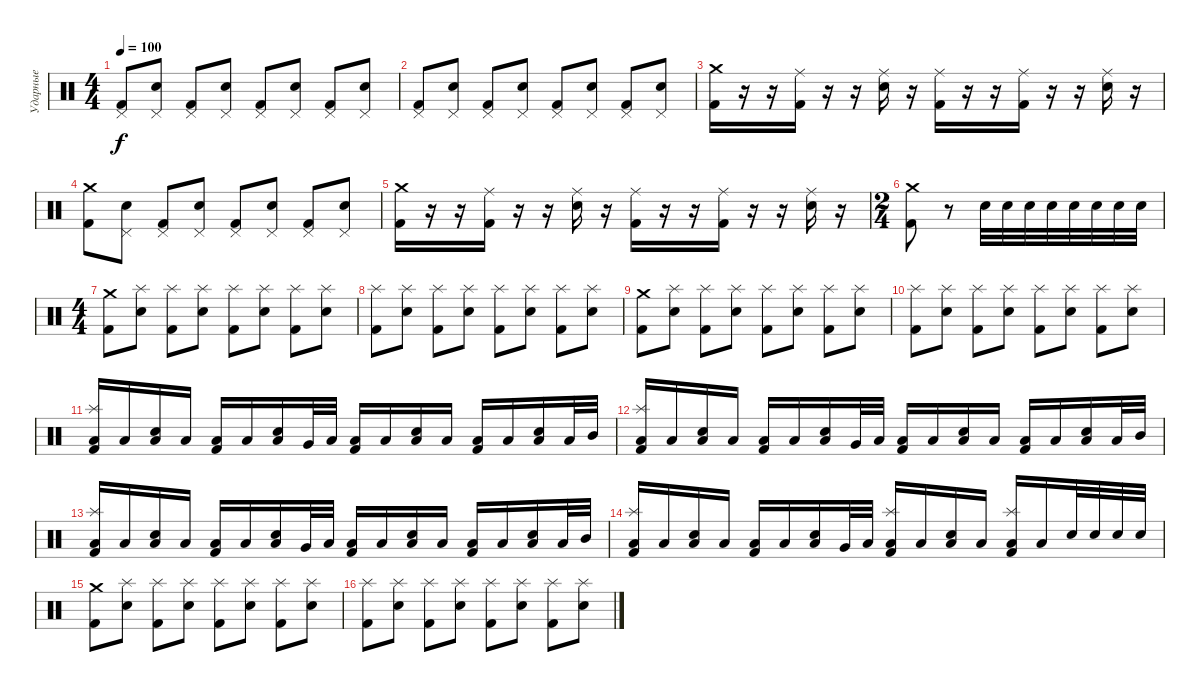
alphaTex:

\track ("Ударные" "Ударные") {instrument percussion}
\staff {score}
\articulation defaults
\ts (4 4)
\tempo 100
\clef neutral
\ks c
("Pedal Hi-Hat (hit)" "Kick (hit) 2").8{dy f} ("Pedal Hi-Hat (hit)" "Electric Snare (hit)").8 ("Pedal Hi-Hat (hit)" "Kick (hit) 2").8 ("Pedal Hi-Hat (hit)" "Electric Snare (hit)").8 ("Pedal Hi-Hat (hit)" "Kick (hit) 2").8 ("Pedal Hi-Hat (hit)" "Electric Snare (hit)").8 ("Pedal Hi-Hat (hit)" "Kick (hit) 2").8 ("Pedal Hi-Hat (hit)" "Electric Snare (hit)").8 |
("Pedal Hi-Hat (hit)" "Kick (hit) 2").8 ("Pedal Hi-Hat (hit)" "Electric Snare (hit)").8 ("Pedal Hi-Hat (hit)" "Kick (hit) 2").8 ("Pedal Hi-Hat (hit)" "Electric Snare (hit)").8 ("Pedal Hi-Hat (hit)" "Kick (hit) 2").8 ("Pedal Hi-Hat (hit)" "Electric Snare (hit)").8 ("Pedal Hi-Hat (hit)" "Kick (hit) 2").8 ("Pedal Hi-Hat (hit)" "Electric Snare (hit)").8 |
("Crash medium (hit)" "Kick (hit) 2").16 r.16 r.16 ("Ride (middle)" "Kick (hit) 2").16 r.16 r.16 ("Ride (middle)" "Electric Snare (hit)").16 r.16 ("Ride (middle)" "Kick (hit) 2").16 r.16 r.16 ("Ride (middle)" "Kick (hit) 2").16 r.16 r.16 ("Ride (middle)" "Electric Snare (hit)").16 r.16 |
("Crash medium (hit)" "Kick (hit) 2").8 ("Pedal Hi-Hat (hit)" "Electric Snare (hit)").8 ("Pedal Hi-Hat (hit)" "Kick (hit) 2").8 ("Pedal Hi-Hat (hit)" "Electric Snare (hit)").8 ("Pedal Hi-Hat (hit)" "Kick (hit) 2").8 ("Pedal Hi-Hat (hit)" "Electric Snare (hit)").8 ("Pedal Hi-Hat (hit)" "Kick (hit) 2").8 ("Pedal Hi-Hat (hit)" "Electric Snare (hit)").8 |
("Crash medium (hit)" "Kick (hit) 2").16 r.16 r.16 ("Ride (middle)" "Kick (hit) 2").16 r.16 r.16 ("Ride (middle)" "Electric Snare (hit)").16 r.16 ("Ride (middle)" "Kick (hit) 2").16 r.16 r.16 ("Ride (middle)" "Kick (hit) 2").16 r.16 r.16 ("Ride (middle)" "Electric Snare (hit)").16 r.16 |
\ts (2 4)
("Crash medium (hit)" "Kick (hit) 2").8 r.8 "Electric Snare (hit)".32 "Electric Snare (hit)".32 "Electric Snare (hit)".32 "Electric Snare (hit)".32 "Electric Snare (hit)".32 "Electric Snare (hit)".32 "Electric Snare (hit)".32 "Electric Snare (hit)".32 |
\ts (4 4)
("Crash medium (hit)" "Kick (hit) 2").8 ("Splash (hit)" "Electric Snare (hit)").8 ("Splash (hit)" "Kick (hit) 2").8 ("Splash (hit)" "Electric Snare (hit)").8 ("Splash (hit)" "Kick (hit) 2").8 ("Splash (hit)" "Electric Snare (hit)").8 ("Splash (hit)" "Kick (hit) 2").8 ("Splash (hit)" "Electric Snare (hit)").8 |
("Splash (hit)" "Kick (hit) 2").8 ("Splash (hit)" "Electric Snare (hit)").8 ("Splash (hit)" "Kick (hit) 2").8 ("Splash (hit)" "Electric Snare (hit)").8 ("Splash (hit)" "Kick (hit) 2").8 ("Splash (hit)" "Electric Snare (hit)").8 ("Splash (hit)" "Kick (hit) 2").8 ("Splash (hit)" "Electric Snare (hit)").8 |
("Crash medium (hit)" "Kick (hit) 2").8 ("Splash (hit)" "Electric Snare (hit)").8 ("Splash (hit)" "Kick (hit) 2").8 ("Splash (hit)" "Electric Snare (hit)").8 ("Splash (hit)" "Kick (hit) 2").8 ("Splash (hit)" "Electric Snare (hit)").8 ("Splash (hit)" "Kick (hit) 2").8 ("Splash (hit)" "Electric Snare (hit)").8 |
("Splash (hit)" "Kick (hit) 2").8 ("Splash (hit)" "Electric Snare (hit)").8 ("Splash (hit)" "Kick (hit) 2").8 ("Splash (hit)" "Electric Snare (hit)").8 ("Splash (hit)" "Kick (hit) 2").8 ("Splash (hit)" "Electric Snare (hit)").8 ("Splash (hit)" "Kick (hit) 2").8 ("Splash (hit)" "Electric Snare (hit)").8 |
("Splash (hit)" "Low Floor Tom (hit)" "Kick (hit) 2").16 "Low Floor Tom (hit)".16 ("Low Floor Tom (hit)" "Electric Snare (hit)").16 "Low Floor Tom (hit)".16 ("Low Floor Tom (hit)" "Kick (hit) 2").16 "Low Floor Tom (hit)".16 ("Low Floor Tom (hit)" "Electric Snare (hit)").16 "Very Low Tom (hit)".32 "Low Floor Tom (hit)".32 ("Low Floor Tom (hit)" "Kick (hit) 2").16 "Low Floor Tom (hit)".16 ("Low Floor Tom (hit)" "Electric Snare (hit)").16 "Low Floor Tom (hit)".16 ("Low Floor Tom (hit)" "Kick (hit) 2").16 "Low Floor Tom (hit)".16 ("Low Floor Tom (hit)" "Electric Snare (hit)").16 "Low Tom (hit)".32 "Mid Tom (hit)".32 |
("Splash (hit)" "Low Floor Tom (hit)" "Kick (hit) 2").16 "Low Floor Tom (hit)".16 ("Low Floor Tom (hit)" "Electric Snare (hit)").16 "Low Floor Tom (hit)".16 ("Low Floor Tom (hit)" "Kick (hit) 2").16 "Low Floor Tom (hit)".16 ("Low Floor Tom (hit)" "Electric Snare (hit)").16 "Very Low Tom (hit)".32 "Low Floor Tom (hit)".32 ("Low Floor Tom (hit)" "Kick (hit) 2").16 "Low Floor Tom (hit)".16 ("Low Floor Tom (hit)" "Electric Snare (hit)").16 "Low Floor Tom (hit)".16 ("Low Floor Tom (hit)" "Kick (hit) 2").16 "Low Floor Tom (hit)".16 ("Low Floor Tom (hit)" "Electric Snare (hit)").16 "Low Tom (hit)".32 "Mid Tom (hit)".32 |
("Splash (hit)" "Low Floor Tom (hit)" "Kick (hit) 2").16 "Low Floor Tom (hit)".16 ("Low Floor Tom (hit)" "Electric Snare (hit)").16 "Low Floor Tom (hit)".16 ("Low Floor Tom (hit)" "Kick (hit) 2").16 "Low Floor Tom (hit)".16 ("Low Floor Tom (hit)" "Electric Snare (hit)").16 "Very Low Tom (hit)".32 "Low Floor Tom (hit)".32 ("Low Floor Tom (hit)" "Kick (hit) 2").16 "Low Floor Tom (hit)".16 ("Low Floor Tom (hit)" "Electric Snare (hit)").16 "Low Floor Tom (hit)".16 ("Low Floor Tom (hit)" "Kick (hit) 2").16 "Low Floor Tom (hit)".16 ("Low Floor Tom (hit)" "Electric Snare (hit)").16 "Low Tom (hit)".32 "Mid Tom (hit)".32 |
("Splash (hit)" "Low Floor Tom (hit)" "Kick (hit) 2").16 "Low Floor Tom (hit)".16 ("Low Floor Tom (hit)" "Electric Snare (hit)").16 "Low Floor Tom (hit)".16 ("Low Floor Tom (hit)" "Kick (hit) 2").16 "Low Floor Tom (hit)".16 ("Low Floor Tom (hit)" "Electric Snare (hit)").16 "Very Low Tom (hit)".32 "Low Floor Tom (hit)".32 ("Splash (hit)" "Low Floor Tom (hit)" "Kick (hit) 2").16 "Low Floor Tom (hit)".16 ("Low Floor Tom (hit)" "Electric Snare (hit)").16 "Low Floor Tom (hit)".16 ("Splash (hit)" "Low Floor Tom (hit)" "Kick (hit) 2").16 "Low Floor Tom (hit)".16 "Electric Snare (hit)".32 "Electric Snare (hit)".32 "Electric Snare (hit)".32 "Electric Snare (hit)".32 |
("Crash medium (hit)" "Kick (hit) 2").8 ("Splash (hit)" "Electric Snare (hit)").8 ("Splash (hit)" "Kick (hit) 2").8 ("Splash (hit)" "Electric Snare (hit)").8 ("Splash (hit)" "Kick (hit) 2").8 ("Splash (hit)" "Electric Snare (hit)").8 ("Splash (hit)" "Kick (hit) 2").8 ("Splash (hit)" "Electric Snare (hit)").8 |
("Splash (hit)" "Kick (hit) 2").8 ("Splash (hit)" "Electric Snare (hit)").8 ("Splash (hit)" "Kick (hit) 2").8 ("Splash (hit)" "Electric Snare (hit)").8 ("Splash (hit)" "Kick (hit) 2").8 ("Splash (hit)" "Electric Snare (hit)").8 ("Splash (hit)" "Kick (hit) 2").8 ("Splash (hit)" "Electric Snare (hit)").8
